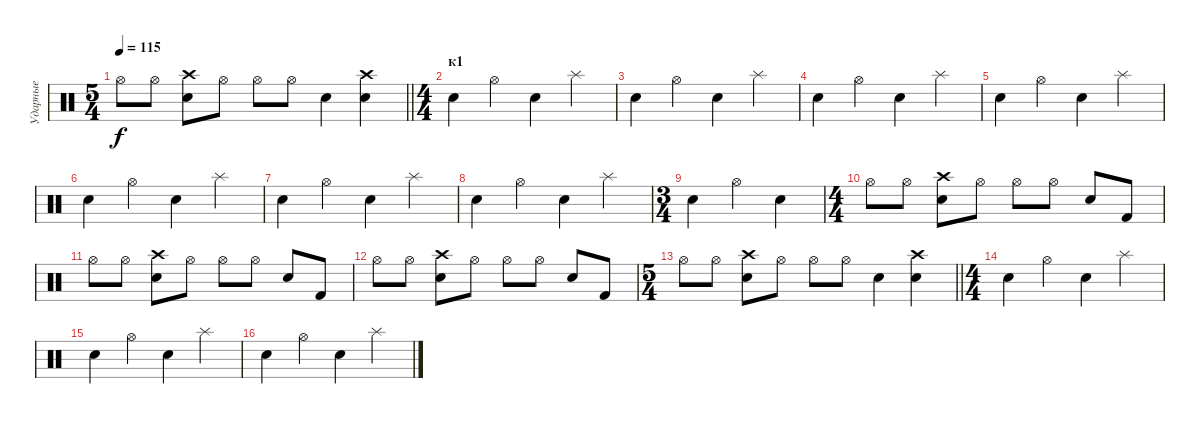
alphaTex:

\track ("Ударные" "Ударные") {instrument percussion}
\staff {score}
\articulation defaults
\ts (5 4)
\tempo 115
\clef neutral
\barLineRight lightlight
\ks c "Hi-Hat (open)".8{dy f} "Hi-Hat (open)".8
("Crash high (hit)" "Snare (hit) 2").8 "Hi-Hat (open)".8 "Hi-Hat (open)".8 "Hi-Hat (open)".8 "Snare (hit) 2".4 ("Snare (hit) 2" "Crash high (hit)").4 |
\ts (4 4)
\section ("" "к1")
"Snare (hit) 2".4 "Hi-Hat (open)".4 "Snare (hit) 2".4 "Splash (hit)".4 |
"Snare (hit) 2".4 "Hi-Hat (open)".4 "Snare (hit) 2".4 "Splash (hit)".4 |
"Snare (hit) 2".4 "Hi-Hat (open)".4 "Snare (hit) 2".4 "Splash (hit)".4 |
"Snare (hit) 2".4 "Hi-Hat (open)".4 "Snare (hit) 2".4 "Splash (hit)".4 |
"Snare (hit) 2".4 "Hi-Hat (open)".4 "Snare (hit) 2".4 "Splash (hit)".4 |
"Snare (hit) 2".4 "Hi-Hat (open)".4 "Snare (hit) 2".4 "Splash (hit)".4 |
"Snare (hit) 2".4 "Hi-Hat (open)".4 "Snare (hit) 2".4 "Splash (hit)".4 |
\ts (3 4)
"Snare (hit) 2".4 "Hi-Hat (open)".4 "Snare (hit) 2".4 |
\ts (4 4)
"Hi-Hat (open)".8 "Hi-Hat (open)".8 ("Crash high (hit)" "Snare (hit) 2").8 "Hi-Hat (open)".8 "Hi-Hat (open)".8 "Hi-Hat (open)".8 "Snare (hit) 2".8 "Kick (hit) 2".8 |
"Hi-Hat (open)".8 "Hi-Hat (open)".8 ("Crash high (hit)" "Snare (hit) 2").8 "Hi-Hat (open)".8 "Hi-Hat (open)".8 "Hi-Hat (open)".8 "Snare (hit) 2".8 "Kick (hit) 2".8 |
"Hi-Hat (open)".8 "Hi-Hat (open)".8 ("Crash high (hit)" "Snare (hit) 2").8 "Hi-Hat (open)".8 "Hi-Hat (open)".8 "Hi-Hat (open)".8 "Snare (hit) 2".8 "Kick (hit) 2".8 |
\ts (5 4)
\barLineRight lightlight "Hi-Hat (open)".8 "Hi-Hat (open)".8
("Crash high (hit)" "Snare (hit) 2").8 "Hi-Hat (open)".8 "Hi-Hat (open)".8 "Hi-Hat (open)".8 "Snare (hit) 2".4 ("Snare (hit) 2" "Crash high (hit)").4 |
\ts (4 4)
"Snare (hit) 2".4 "Hi-Hat (open)".4 "Snare (hit) 2".4 "Splash (hit)".4 |
"Snare (hit) 2".4 "Hi-Hat (open)".4 "Snare (hit) 2".4 "Splash (hit)".4 |
"Snare (hit) 2".4 "Hi-Hat (open)".4 "Snare (hit) 2".4 "Splash (hit)".4
